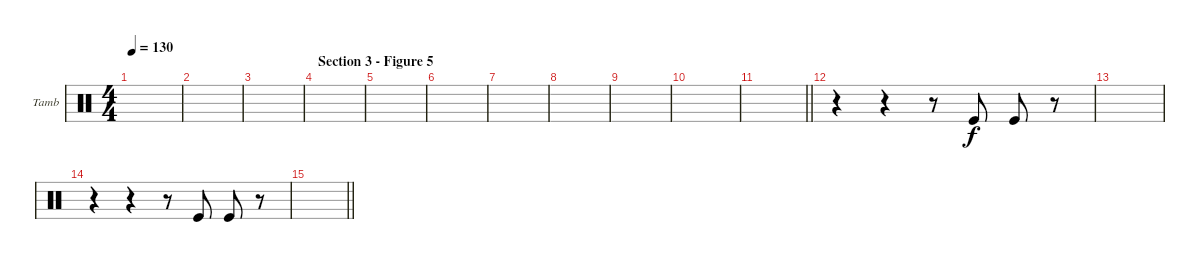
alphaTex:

\defaultSystemsLayout 4
\bracketExtendMode groupsimilarinstruments
\firstSystemTrackNameOrientation horizontal
\otherSystemsTrackNameOrientation horizontal
\track ("Tambourine" "Tamb") {instrument percussion}
\staff {score}
\articulation defaults
\ts (4 4)
\tempo 130
\clef neutral
\scale
0.333333
\ks aminor
|
\scale
0.333333 |
\scale
0.333333 |
\section ("" "Section 3 - Figure 5")
\scale
0.333333 |
\scale
0.333333 |
\scale
0.333333 |
\scale
0.333333 |
\scale
0.333333 |
\scale
0.333333 |
\scale
0.333333 |
\scale
0.333333
\barLineRight lightlight
|
\scale
0.333333 r.4 r.4 r.8 "Kick (hit)".8 "Kick (hit)".8 r.8 |
\scale
0.333333 |
\scale
0.333333 r.4 r.4 r.8 "Kick (hit)".8 "Kick (hit)".8 r.8 |
\scale
0.333333
\barLineRight lightlight
|
\scale
0.333333
